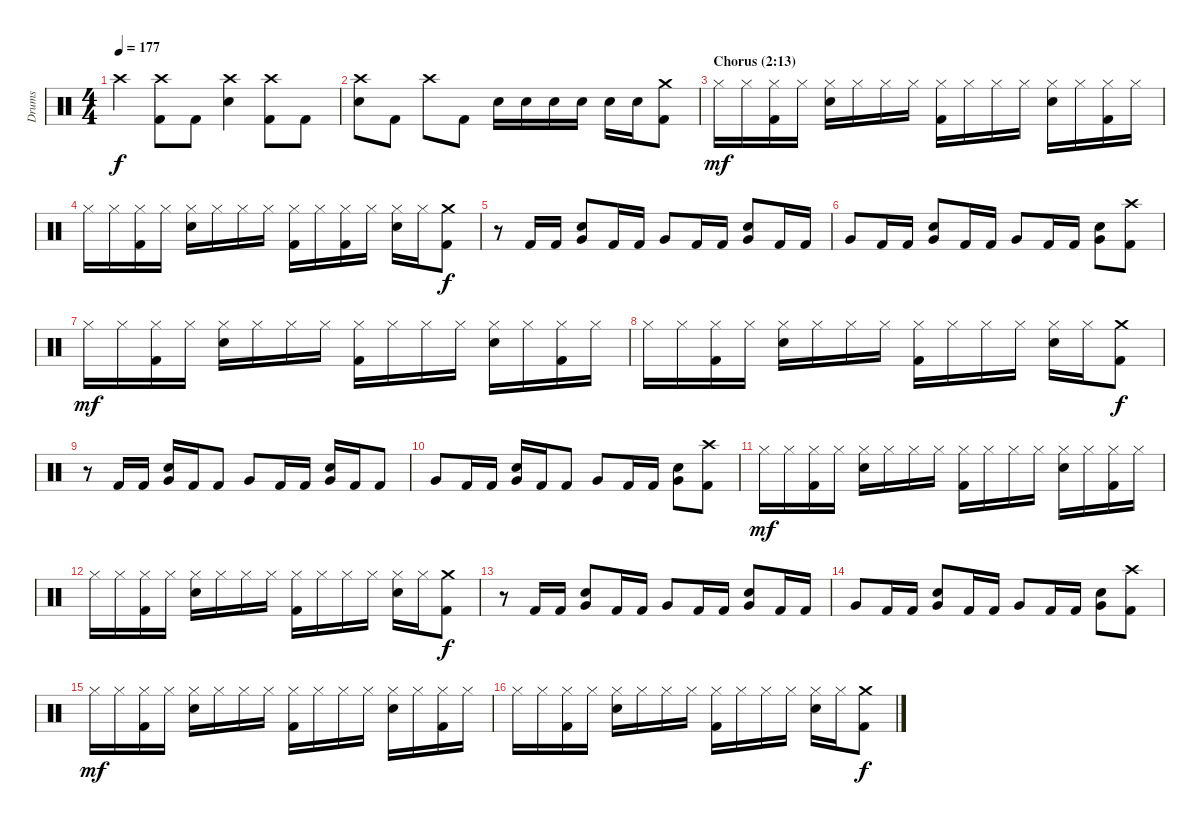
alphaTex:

\track ("Drums" "Drums") {instrument percussion}
\staff {score}
\articulation defaults
\ts (4 4)
\tempo 177
\clef neutral
\ks c "Crash high (hit)".4{dy f}
("Crash high (hit)" "Kick (hit) 2").8 "Kick (hit) 2".8 ("Crash high (hit)" "Snare (hit) 2").4 ("Crash high (hit)" "Kick (hit) 2").8 "Kick (hit) 2".8 |
("Crash high (hit)" "Snare (hit) 2").8 "Kick (hit) 2".8 "Crash high (hit)".8 "Kick (hit) 2".8 "Snare (hit) 2".16 "Snare (hit) 2".16 "Snare (hit) 2".16 "Snare (hit) 2".16 "Snare (hit) 2".16 "Snare (hit) 2".16 ("Crash medium (hit)" "Kick (hit) 2").8 |
\section ("" "Chorus (2:13)")
"Hi-Hat (closed)".16{dy mf} "Hi-Hat (closed)".16 ("Hi-Hat (closed)" "Kick (hit) 2").16 "Hi-Hat (closed)".16 ("Hi-Hat (closed)" "Snare (hit) 2").16 "Hi-Hat (closed)".16 "Hi-Hat (closed)".16 "Hi-Hat (closed)".16 ("Hi-Hat (closed)" "Kick (hit) 2").16 "Hi-Hat (closed)".16 "Hi-Hat (closed)".16 "Hi-Hat (closed)".16 ("Hi-Hat (closed)" "Snare (hit) 2").16 "Hi-Hat (closed)".16 ("Hi-Hat (closed)" "Kick (hit) 2").16 "Hi-Hat (closed)".16 |
"Hi-Hat (closed)".16 "Hi-Hat (closed)".16 ("Hi-Hat (closed)" "Kick (hit) 2").16 "Hi-Hat (closed)".16 ("Hi-Hat (closed)" "Snare (hit) 2").16 "Hi-Hat (closed)".16 "Hi-Hat (closed)".16 "Hi-Hat (closed)".16 ("Hi-Hat (closed)" "Kick (hit) 2").16 "Hi-Hat (closed)".16 ("Hi-Hat (closed)" "Kick (hit) 2").16 "Hi-Hat (closed)".16 ("Hi-Hat (closed)" "Snare (hit) 2").16 "Hi-Hat (closed)".16 ("Crash medium (hit)" "Kick (hit) 2").8{dy f} |
r.8 "Kick (hit) 2".16 "Kick (hit) 2".16 ("Snare (hit) 2" "Very Low Tom (hit)").8 "Kick (hit) 2".16 "Kick (hit) 2".16 "Very Low Tom (hit)".8 "Kick (hit) 2".16 "Kick (hit) 2".16 ("Snare (hit) 2" "Very Low Tom (hit)").8 "Kick (hit) 2".16 "Kick (hit) 2".16 |
"Very Low Tom (hit)".8 "Kick (hit) 2".16 "Kick (hit) 2".16 ("Snare (hit) 2" "Very Low Tom (hit)").8 "Kick (hit) 2".16 "Kick (hit) 2".16 "Very Low Tom (hit)".8 "Kick (hit) 2".16 "Kick (hit) 2".16 ("Snare (hit) 2" "Very Low Tom (hit)").8 ("Crash high (hit)" "Kick (hit) 2").8 |
"Hi-Hat (closed)".16{dy mf} "Hi-Hat (closed)".16 ("Hi-Hat (closed)" "Kick (hit) 2").16 "Hi-Hat (closed)".16 ("Hi-Hat (closed)" "Snare (hit) 2").16 "Hi-Hat (closed)".16 "Hi-Hat (closed)".16 "Hi-Hat (closed)".16 ("Hi-Hat (closed)" "Kick (hit) 2").16 "Hi-Hat (closed)".16 "Hi-Hat (closed)".16 "Hi-Hat (closed)".16 ("Hi-Hat (closed)" "Snare (hit) 2").16 "Hi-Hat (closed)".16 ("Hi-Hat (closed)" "Kick (hit) 2").16 "Hi-Hat (closed)".16 |
"Hi-Hat (closed)".16 "Hi-Hat (closed)".16 ("Hi-Hat (closed)" "Kick (hit) 2").16 "Hi-Hat (closed)".16 ("Hi-Hat (closed)" "Snare (hit) 2").16 "Hi-Hat (closed)".16 "Hi-Hat (closed)".16 "Hi-Hat (closed)".16 ("Hi-Hat (closed)" "Kick (hit) 2").16 "Hi-Hat (closed)".16 "Hi-Hat (closed)".16 "Hi-Hat (closed)".16 ("Hi-Hat (closed)" "Snare (hit) 2").16 "Hi-Hat (closed)".16 ("Crash medium (hit)" "Kick (hit) 2").8{dy f} |
r.8 "Kick (hit) 2".16 "Kick (hit) 2".16 ("Snare (hit) 2" "Very Low Tom (hit)").16 "Kick (hit) 2".16 "Kick (hit) 2".8 "Very Low Tom (hit)".8 "Kick (hit) 2".16 "Kick (hit) 2".16 ("Snare (hit) 2" "Very Low Tom (hit)").16 "Kick (hit) 2".16 "Kick (hit) 2".8 |
"Very Low Tom (hit)".8 "Kick (hit) 2".16 "Kick (hit) 2".16 ("Snare (hit) 2" "Very Low Tom (hit)").16 "Kick (hit) 2".16 "Kick (hit) 2".8 "Very Low Tom (hit)".8 "Kick (hit) 2".16 "Kick (hit) 2".16 ("Snare (hit) 2" "Very Low Tom (hit)").8 ("Crash high (hit)" "Kick (hit) 2").8 |
"Hi-Hat (closed)".16{dy mf} "Hi-Hat (closed)".16 ("Hi-Hat (closed)" "Kick (hit) 2").16 "Hi-Hat (closed)".16 ("Hi-Hat (closed)" "Snare (hit) 2").16 "Hi-Hat (closed)".16 "Hi-Hat (closed)".16 "Hi-Hat (closed)".16 ("Hi-Hat (closed)" "Kick (hit) 2").16 "Hi-Hat (closed)".16 "Hi-Hat (closed)".16 "Hi-Hat (closed)".16 ("Hi-Hat (closed)" "Snare (hit) 2").16 "Hi-Hat (closed)".16 ("Hi-Hat (closed)" "Kick (hit) 2").16 "Hi-Hat (closed)".16 |
"Hi-Hat (closed)".16 "Hi-Hat (closed)".16 ("Hi-Hat (closed)" "Kick (hit) 2").16 "Hi-Hat (closed)".16 ("Hi-Hat (closed)" "Snare (hit) 2").16 "Hi-Hat (closed)".16 "Hi-Hat (closed)".16 "Hi-Hat (closed)".16 ("Hi-Hat (closed)" "Kick (hit) 2").16 "Hi-Hat (closed)".16 "Hi-Hat (closed)".16 "Hi-Hat (closed)".16 ("Hi-Hat (closed)" "Snare (hit) 2").16 "Hi-Hat (closed)".16 ("Crash medium (hit)" "Kick (hit) 2").8{dy f} |
r.8 "Kick (hit) 2".16 "Kick (hit) 2".16 ("Snare (hit) 2" "Very Low Tom (hit)").8 "Kick (hit) 2".16 "Kick (hit) 2".16 "Very Low Tom (hit)".8 "Kick (hit) 2".16 "Kick (hit) 2".16 ("Snare (hit) 2" "Very Low Tom (hit)").8 "Kick (hit) 2".16 "Kick (hit) 2".16 |
"Very Low Tom (hit)".8 "Kick (hit) 2".16 "Kick (hit) 2".16 ("Snare (hit) 2" "Very Low Tom (hit)").8 "Kick (hit) 2".16 "Kick (hit) 2".16 "Very Low Tom (hit)".8 "Kick (hit) 2".16 "Kick (hit) 2".16 ("Snare (hit) 2" "Very Low Tom (hit)").8 ("Crash high (hit)" "Kick (hit) 2").8 |
"Hi-Hat (closed)".16{dy mf} "Hi-Hat (closed)".16 ("Hi-Hat (closed)" "Kick (hit) 2").16 "Hi-Hat (closed)".16 ("Hi-Hat (closed)" "Snare (hit) 2").16 "Hi-Hat (closed)".16 "Hi-Hat (closed)".16 "Hi-Hat (closed)".16 ("Hi-Hat (closed)" "Kick (hit) 2").16 "Hi-Hat (closed)".16 "Hi-Hat (closed)".16 "Hi-Hat (closed)".16 ("Hi-Hat (closed)" "Snare (hit) 2").16 "Hi-Hat (closed)".16 ("Hi-Hat (closed)" "Kick (hit) 2").16 "Hi-Hat (closed)".16 |
"Hi-Hat (closed)".16 "Hi-Hat (closed)".16 ("Hi-Hat (closed)" "Kick (hit) 2").16 "Hi-Hat (closed)".16 ("Hi-Hat (closed)" "Snare (hit) 2").16 "Hi-Hat (closed)".16 "Hi-Hat (closed)".16 "Hi-Hat (closed)".16 ("Hi-Hat (closed)" "Kick (hit) 2").16 "Hi-Hat (closed)".16 "Hi-Hat (closed)".16 "Hi-Hat (closed)".16 ("Hi-Hat (closed)" "Snare (hit) 2").16 "Hi-Hat (closed)".16 ("Crash medium (hit)" "Kick (hit) 2").8{dy f}
